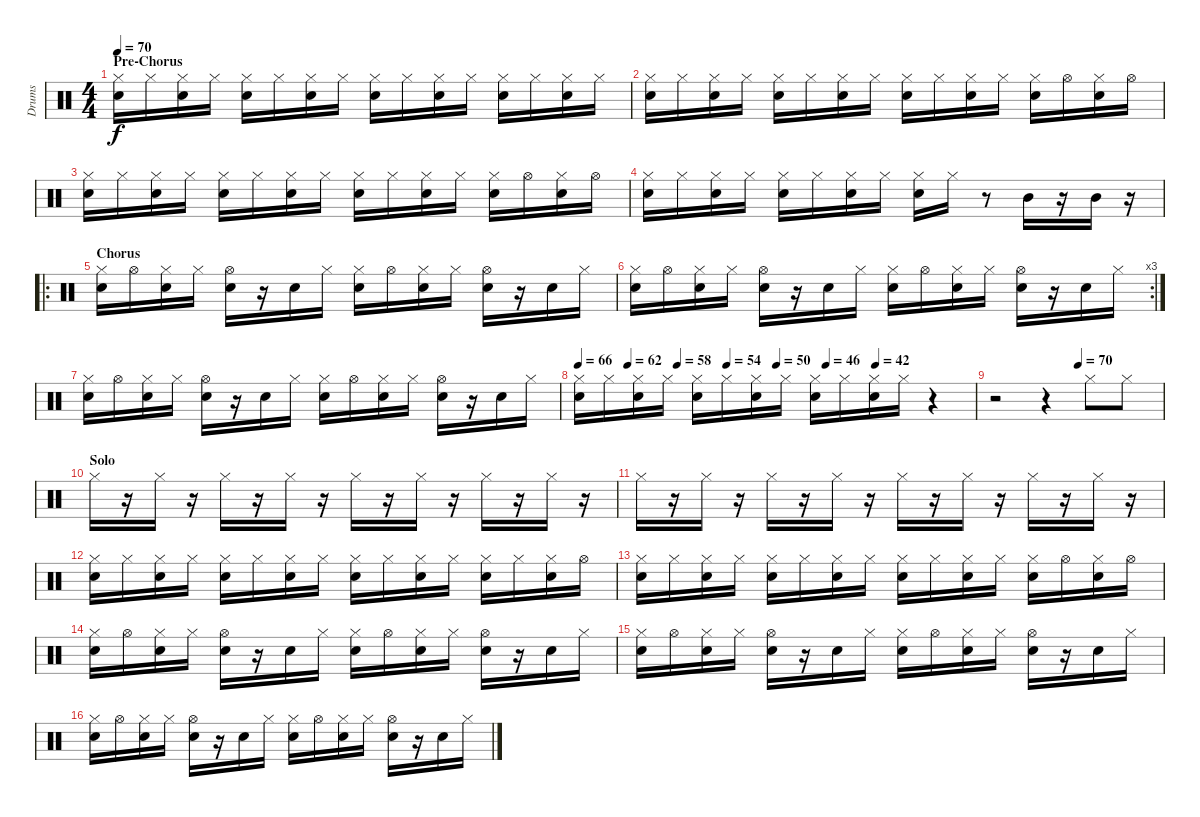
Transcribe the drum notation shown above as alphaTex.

\track ("Drums" "Drums") {instrument percussion}
\staff {score}
\articulation defaults
\ts (4 4)
\section ("" "Pre-Chorus")
\tempo 70
\clef neutral
\ks c
("Hi-Hat (closed)" "Electric Snare (hit)").16{dy f} "Hi-Hat (closed)".16 ("Hi-Hat (closed)" "Electric Snare (hit)").16 "Hi-Hat (closed)".16 ("Hi-Hat (closed)" "Electric Snare (hit)").16 "Hi-Hat (closed)".16 ("Hi-Hat (closed)" "Electric Snare (hit)").16 "Hi-Hat (closed)".16 ("Hi-Hat (closed)" "Electric Snare (hit)").16 "Hi-Hat (closed)".16 ("Hi-Hat (closed)" "Electric Snare (hit)").16 "Hi-Hat (closed)".16 ("Hi-Hat (closed)" "Electric Snare (hit)").16 "Hi-Hat (closed)".16 ("Hi-Hat (closed)" "Electric Snare (hit)").16 "Hi-Hat (closed)".16 |
("Hi-Hat (closed)" "Electric Snare (hit)").16 "Hi-Hat (closed)".16 ("Hi-Hat (closed)" "Electric Snare (hit)").16 "Hi-Hat (closed)".16 ("Hi-Hat (closed)" "Electric Snare (hit)").16 "Hi-Hat (closed)".16 ("Hi-Hat (closed)" "Electric Snare (hit)").16 "Hi-Hat (closed)".16 ("Hi-Hat (closed)" "Electric Snare (hit)").16 "Hi-Hat (closed)".16 ("Hi-Hat (closed)" "Electric Snare (hit)").16 "Hi-Hat (closed)".16 ("Hi-Hat (closed)" "Electric Snare (hit)").16 "Hi-Hat (open)".16 ("Hi-Hat (closed)" "Electric Snare (hit)").16 "Hi-Hat (open)".16 |
("Hi-Hat (closed)" "Electric Snare (hit)").16 "Hi-Hat (closed)".16 ("Hi-Hat (closed)" "Electric Snare (hit)").16 "Hi-Hat (closed)".16 ("Hi-Hat (closed)" "Electric Snare (hit)").16 "Hi-Hat (closed)".16 ("Hi-Hat (closed)" "Electric Snare (hit)").16 "Hi-Hat (closed)".16 ("Hi-Hat (closed)" "Electric Snare (hit)").16 "Hi-Hat (closed)".16 ("Hi-Hat (closed)" "Electric Snare (hit)").16 "Hi-Hat (closed)".16 ("Hi-Hat (closed)" "Electric Snare (hit)").16 "Hi-Hat (open)".16 ("Hi-Hat (closed)" "Electric Snare (hit)").16 "Hi-Hat (open)".16 |
("Hi-Hat (closed)" "Electric Snare (hit)").16 "Hi-Hat (closed)".16 ("Hi-Hat (closed)" "Electric Snare (hit)").16 "Hi-Hat (closed)".16 ("Hi-Hat (closed)" "Electric Snare (hit)").16 "Hi-Hat (closed)".16 ("Hi-Hat (closed)" "Electric Snare (hit)").16 "Hi-Hat (closed)".16 ("Hi-Hat (closed)" "Electric Snare (hit)").16 "Hi-Hat (closed)".16 r.8 "Mid Tom (hit)".16 r.16 "Mid Tom (hit)".16 r.16 |
\ro
\section ("" "Chorus")
("Hi-Hat (closed)" "Electric Snare (hit)").16 "Hi-Hat (open)".16 ("Hi-Hat (closed)" "Electric Snare (hit)").16 "Hi-Hat (closed)".16 ("Hi-Hat (open)" "Electric Snare (hit)").16 r.16 "Electric Snare (hit)".16 "Hi-Hat (closed)".16 ("Hi-Hat (closed)" "Electric Snare (hit)").16 "Hi-Hat (open)".16 ("Hi-Hat (closed)" "Electric Snare (hit)").16 "Hi-Hat (closed)".16 ("Hi-Hat (open)" "Electric Snare (hit)").16 r.16 "Electric Snare (hit)".16 "Hi-Hat (closed)".16 |
\rc 3
("Hi-Hat (closed)" "Electric Snare (hit)").16 "Hi-Hat (open)".16 ("Hi-Hat (closed)" "Electric Snare (hit)").16 "Hi-Hat (closed)".16 ("Hi-Hat (open)" "Electric Snare (hit)").16 r.16 "Electric Snare (hit)".16 "Hi-Hat (closed)".16 ("Hi-Hat (closed)" "Electric Snare (hit)").16 "Hi-Hat (open)".16 ("Hi-Hat (closed)" "Electric Snare (hit)").16 "Hi-Hat (closed)".16 ("Hi-Hat (open)" "Electric Snare (hit)").16 r.16 "Electric Snare (hit)".16 "Hi-Hat (closed)".16 |
("Hi-Hat (closed)" "Electric Snare (hit)").16 "Hi-Hat (open)".16 ("Hi-Hat (closed)" "Electric Snare (hit)").16 "Hi-Hat (closed)".16 ("Hi-Hat (open)" "Electric Snare (hit)").16 r.16 "Electric Snare (hit)".16 "Hi-Hat (closed)".16 ("Hi-Hat (closed)" "Electric Snare (hit)").16 "Hi-Hat (open)".16 ("Hi-Hat (closed)" "Electric Snare (hit)").16 "Hi-Hat (closed)".16 ("Hi-Hat (open)" "Electric Snare (hit)").16 r.16 "Electric Snare (hit)".16 "Hi-Hat (closed)".16 |
\tempo 66
\tempo (62 0.125)
\tempo (58 0.25)
\tempo (54 0.375)
\tempo (50 0.5)
\tempo (46 0.625)
\tempo (42 0.75)
("Hi-Hat (closed)" "Electric Snare (hit)").16 "Hi-Hat (closed)".16 ("Hi-Hat (closed)" "Electric Snare (hit)").16 "Hi-Hat (closed)".16 ("Hi-Hat (closed)" "Electric Snare (hit)").16 "Hi-Hat (closed)".16 ("Hi-Hat (closed)" "Electric Snare (hit)").16 "Hi-Hat (closed)".16 ("Hi-Hat (closed)" "Electric Snare (hit)").16 "Hi-Hat (closed)".16 ("Hi-Hat (closed)" "Electric Snare (hit)").16 "Hi-Hat (closed)".16 r.4 |
\tempo (70 0.5)
r.2 r.4 "Hi-Hat (closed)".8 "Hi-Hat (closed)".8 |
\section ("" "Solo")
"Hi-Hat (closed)".16 r.16 "Hi-Hat (closed)".16 r.16 "Hi-Hat (closed)".16 r.16 "Hi-Hat (closed)".16 r.16 "Hi-Hat (closed)".16 r.16 "Hi-Hat (closed)".16 r.16 "Hi-Hat (closed)".16 r.16 "Hi-Hat (closed)".16 r.16 |
"Hi-Hat (closed)".16 r.16 "Hi-Hat (closed)".16 r.16 "Hi-Hat (closed)".16 r.16 "Hi-Hat (closed)".16 r.16 "Hi-Hat (closed)".16 r.16 "Hi-Hat (closed)".16 r.16 "Hi-Hat (closed)".16 r.16 "Hi-Hat (closed)".16 r.16 |
("Hi-Hat (closed)" "Electric Snare (hit)").16 "Hi-Hat (closed)".16 ("Hi-Hat (closed)" "Electric Snare (hit)").16 "Hi-Hat (closed)".16 ("Hi-Hat (closed)" "Electric Snare (hit)").16 "Hi-Hat (closed)".16 ("Hi-Hat (closed)" "Electric Snare (hit)").16 "Hi-Hat (closed)".16 ("Hi-Hat (closed)" "Electric Snare (hit)").16 "Hi-Hat (closed)".16 ("Hi-Hat (closed)" "Electric Snare (hit)").16 "Hi-Hat (closed)".16 ("Hi-Hat (closed)" "Electric Snare (hit)").16 "Hi-Hat (closed)".16 ("Hi-Hat (closed)" "Electric Snare (hit)").16 "Hi-Hat (open)".16 |
("Hi-Hat (closed)" "Electric Snare (hit)").16 "Hi-Hat (closed)".16 ("Hi-Hat (closed)" "Electric Snare (hit)").16 "Hi-Hat (closed)".16 ("Hi-Hat (closed)" "Electric Snare (hit)").16 "Hi-Hat (closed)".16 ("Hi-Hat (closed)" "Electric Snare (hit)").16 "Hi-Hat (closed)".16 ("Hi-Hat (closed)" "Electric Snare (hit)").16 "Hi-Hat (closed)".16 ("Hi-Hat (closed)" "Electric Snare (hit)").16 "Hi-Hat (closed)".16 ("Hi-Hat (closed)" "Electric Snare (hit)").16 "Hi-Hat (open)".16 ("Hi-Hat (closed)" "Electric Snare (hit)").16 "Hi-Hat (open)".16 |
("Hi-Hat (closed)" "Electric Snare (hit)").16 "Hi-Hat (open)".16 ("Hi-Hat (closed)" "Electric Snare (hit)").16 "Hi-Hat (closed)".16 ("Hi-Hat (open)" "Electric Snare (hit)").16 r.16 "Electric Snare (hit)".16 "Hi-Hat (closed)".16 ("Hi-Hat (closed)" "Electric Snare (hit)").16 "Hi-Hat (open)".16 ("Hi-Hat (closed)" "Electric Snare (hit)").16 "Hi-Hat (closed)".16 ("Hi-Hat (open)" "Electric Snare (hit)").16 r.16 "Electric Snare (hit)".16 "Hi-Hat (closed)".16 |
("Hi-Hat (closed)" "Electric Snare (hit)").16 "Hi-Hat (open)".16 ("Hi-Hat (closed)" "Electric Snare (hit)").16 "Hi-Hat (closed)".16 ("Hi-Hat (open)" "Electric Snare (hit)").16 r.16 "Electric Snare (hit)".16 "Hi-Hat (closed)".16 ("Hi-Hat (closed)" "Electric Snare (hit)").16 "Hi-Hat (open)".16 ("Hi-Hat (closed)" "Electric Snare (hit)").16 "Hi-Hat (closed)".16 ("Hi-Hat (open)" "Electric Snare (hit)").16 r.16 "Electric Snare (hit)".16 "Hi-Hat (closed)".16 |
("Hi-Hat (closed)" "Electric Snare (hit)").16 "Hi-Hat (open)".16 ("Hi-Hat (closed)" "Electric Snare (hit)").16 "Hi-Hat (closed)".16 ("Hi-Hat (open)" "Electric Snare (hit)").16 r.16 "Electric Snare (hit)".16 "Hi-Hat (closed)".16 ("Hi-Hat (closed)" "Electric Snare (hit)").16 "Hi-Hat (open)".16 ("Hi-Hat (closed)" "Electric Snare (hit)").16 "Hi-Hat (closed)".16 ("Hi-Hat (open)" "Electric Snare (hit)").16 r.16 "Electric Snare (hit)".16 "Hi-Hat (closed)".16
